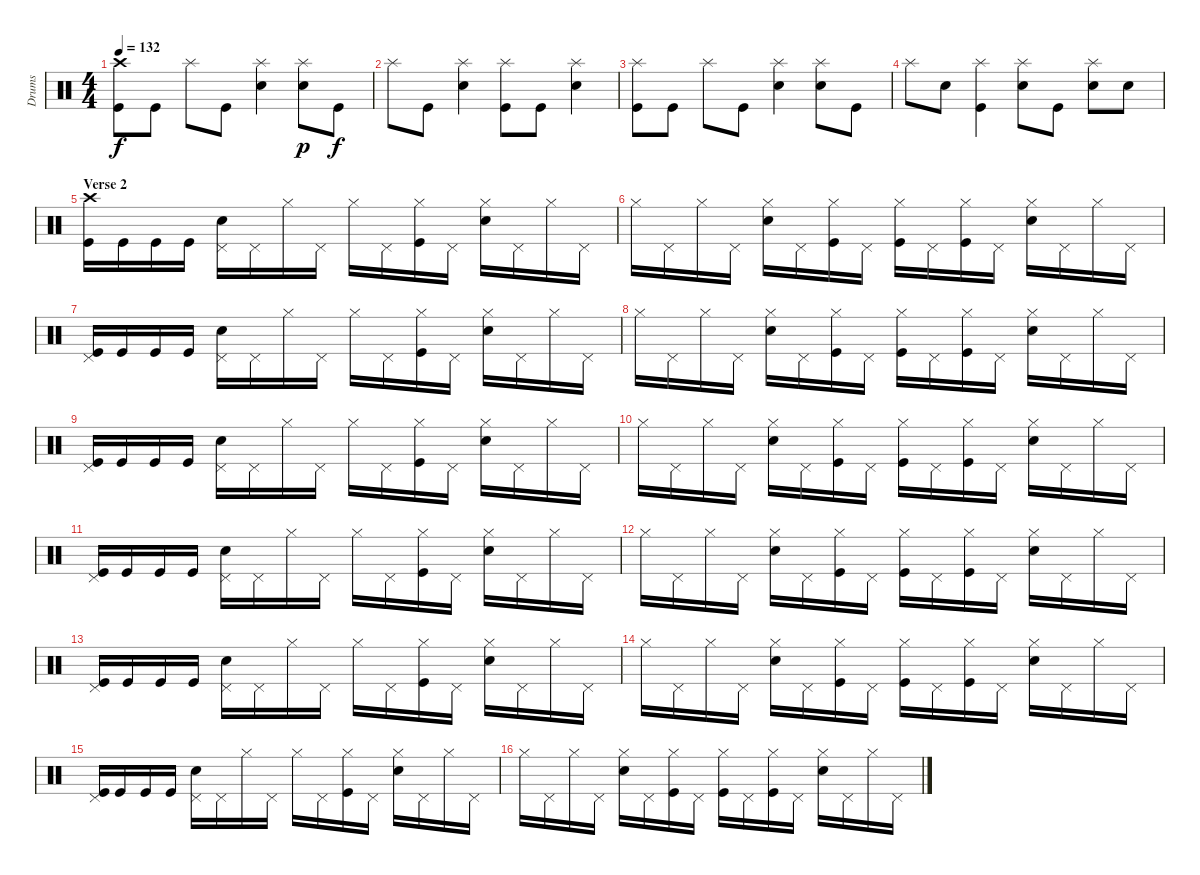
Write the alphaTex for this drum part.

\track ("Drums" "Drums") {instrument percussion}
\staff {score}
\articulation defaults
\ts (4 4)
\tempo 132
\clef neutral
\ks c
("Crash high (hit)" "Kick (hit)").8{dy f} "Kick (hit)".8 "Splash (hit)".8 "Kick (hit)".8 ("Snare (hit) 2" "Splash (hit)").4 ("Snare (hit) 2" "Splash (hit)").8{dy p} "Kick (hit)".8{dy f} |
"Splash (hit)".8 "Kick (hit)".8 ("Snare (hit) 2" "Splash (hit)").4 ("Splash (hit)" "Kick (hit)").8 "Kick (hit)".8 ("Snare (hit) 2" "Splash (hit)").4 |
("Splash (hit)" "Kick (hit)").8 "Kick (hit)".8 "Splash (hit)".8 "Kick (hit)".8 ("Snare (hit) 2" "Splash (hit)").4 ("Snare (hit) 2" "Splash (hit)").8 "Kick (hit)".8 |
"Splash (hit)".8 "Snare (hit) 2".8 ("Splash (hit)" "Kick (hit)").4 ("Snare (hit) 2" "Splash (hit)").8 "Kick (hit)".8 ("Snare (hit) 2" "Splash (hit)").8 "Snare (hit) 2".8 |
\section ("" "Verse 2")
("Crash high (hit)" "Kick (hit)").16 "Kick (hit)".16 "Kick (hit)".16 "Kick (hit)".16 ("Snare (hit) 2" "Pedal Hi-Hat (hit)").16 "Pedal Hi-Hat (hit)".16 "Hi-Hat (closed)".16 "Pedal Hi-Hat (hit)".16 "Hi-Hat (closed)".16 "Pedal Hi-Hat (hit)".16 ("Hi-Hat (closed)" "Kick (hit)").16 "Pedal Hi-Hat (hit)".16 ("Snare (hit) 2" "Hi-Hat (closed)").16 "Pedal Hi-Hat (hit)".16 "Hi-Hat (closed)".16 "Pedal Hi-Hat (hit)".16 |
"Hi-Hat (closed)".16 "Pedal Hi-Hat (hit)".16 "Hi-Hat (closed)".16 "Pedal Hi-Hat (hit)".16 ("Snare (hit) 2" "Hi-Hat (closed)").16 "Pedal Hi-Hat (hit)".16 ("Hi-Hat (closed)" "Kick (hit)").16 "Pedal Hi-Hat (hit)".16 ("Hi-Hat (closed)" "Kick (hit)").16 "Pedal Hi-Hat (hit)".16 ("Hi-Hat (closed)" "Kick (hit)").16 "Pedal Hi-Hat (hit)".16 ("Snare (hit) 2" "Hi-Hat (closed)").16 "Pedal Hi-Hat (hit)".16 "Hi-Hat (closed)".16 "Pedal Hi-Hat (hit)".16 |
("Pedal Hi-Hat (hit)" "Kick (hit)").16 "Kick (hit)".16 "Kick (hit)".16 "Kick (hit)".16 ("Snare (hit) 2" "Pedal Hi-Hat (hit)").16 "Pedal Hi-Hat (hit)".16 "Hi-Hat (closed)".16 "Pedal Hi-Hat (hit)".16 "Hi-Hat (closed)".16 "Pedal Hi-Hat (hit)".16 ("Hi-Hat (closed)" "Kick (hit)").16 "Pedal Hi-Hat (hit)".16 ("Snare (hit) 2" "Hi-Hat (closed)").16 "Pedal Hi-Hat (hit)".16 "Hi-Hat (closed)".16 "Pedal Hi-Hat (hit)".16 |
"Hi-Hat (closed)".16 "Pedal Hi-Hat (hit)".16 "Hi-Hat (closed)".16 "Pedal Hi-Hat (hit)".16 ("Snare (hit) 2" "Hi-Hat (closed)").16 "Pedal Hi-Hat (hit)".16 ("Hi-Hat (closed)" "Kick (hit)").16 "Pedal Hi-Hat (hit)".16 ("Hi-Hat (closed)" "Kick (hit)").16 "Pedal Hi-Hat (hit)".16 ("Hi-Hat (closed)" "Kick (hit)").16 "Pedal Hi-Hat (hit)".16 ("Snare (hit) 2" "Hi-Hat (closed)").16 "Pedal Hi-Hat (hit)".16 "Hi-Hat (closed)".16 "Pedal Hi-Hat (hit)".16 |
("Pedal Hi-Hat (hit)" "Kick (hit)").16 "Kick (hit)".16 "Kick (hit)".16 "Kick (hit)".16 ("Snare (hit) 2" "Pedal Hi-Hat (hit)").16 "Pedal Hi-Hat (hit)".16 "Hi-Hat (closed)".16 "Pedal Hi-Hat (hit)".16 "Hi-Hat (closed)".16 "Pedal Hi-Hat (hit)".16 ("Hi-Hat (closed)" "Kick (hit)").16 "Pedal Hi-Hat (hit)".16 ("Snare (hit) 2" "Hi-Hat (closed)").16 "Pedal Hi-Hat (hit)".16 "Hi-Hat (closed)".16 "Pedal Hi-Hat (hit)".16 |
"Hi-Hat (closed)".16 "Pedal Hi-Hat (hit)".16 "Hi-Hat (closed)".16 "Pedal Hi-Hat (hit)".16 ("Snare (hit) 2" "Hi-Hat (closed)").16 "Pedal Hi-Hat (hit)".16 ("Hi-Hat (closed)" "Kick (hit)").16 "Pedal Hi-Hat (hit)".16 ("Hi-Hat (closed)" "Kick (hit)").16 "Pedal Hi-Hat (hit)".16 ("Hi-Hat (closed)" "Kick (hit)").16 "Pedal Hi-Hat (hit)".16 ("Snare (hit) 2" "Hi-Hat (closed)").16 "Pedal Hi-Hat (hit)".16 "Hi-Hat (closed)".16 "Pedal Hi-Hat (hit)".16 |
("Pedal Hi-Hat (hit)" "Kick (hit)").16 "Kick (hit)".16 "Kick (hit)".16 "Kick (hit)".16 ("Snare (hit) 2" "Pedal Hi-Hat (hit)").16 "Pedal Hi-Hat (hit)".16 "Hi-Hat (closed)".16 "Pedal Hi-Hat (hit)".16 "Hi-Hat (closed)".16 "Pedal Hi-Hat (hit)".16 ("Hi-Hat (closed)" "Kick (hit)").16 "Pedal Hi-Hat (hit)".16 ("Snare (hit) 2" "Hi-Hat (closed)").16 "Pedal Hi-Hat (hit)".16 "Hi-Hat (closed)".16 "Pedal Hi-Hat (hit)".16 |
"Hi-Hat (closed)".16 "Pedal Hi-Hat (hit)".16 "Hi-Hat (closed)".16 "Pedal Hi-Hat (hit)".16 ("Snare (hit) 2" "Hi-Hat (closed)").16 "Pedal Hi-Hat (hit)".16 ("Hi-Hat (closed)" "Kick (hit)").16 "Pedal Hi-Hat (hit)".16 ("Hi-Hat (closed)" "Kick (hit)").16 "Pedal Hi-Hat (hit)".16 ("Hi-Hat (closed)" "Kick (hit)").16 "Pedal Hi-Hat (hit)".16 ("Snare (hit) 2" "Hi-Hat (closed)").16 "Pedal Hi-Hat (hit)".16 "Hi-Hat (closed)".16 "Pedal Hi-Hat (hit)".16 |
("Pedal Hi-Hat (hit)" "Kick (hit)").16 "Kick (hit)".16 "Kick (hit)".16 "Kick (hit)".16 ("Snare (hit) 2" "Pedal Hi-Hat (hit)").16 "Pedal Hi-Hat (hit)".16 "Hi-Hat (closed)".16 "Pedal Hi-Hat (hit)".16 "Hi-Hat (closed)".16 "Pedal Hi-Hat (hit)".16 ("Hi-Hat (closed)" "Kick (hit)").16 "Pedal Hi-Hat (hit)".16 ("Snare (hit) 2" "Hi-Hat (closed)").16 "Pedal Hi-Hat (hit)".16 "Hi-Hat (closed)".16 "Pedal Hi-Hat (hit)".16 |
"Hi-Hat (closed)".16 "Pedal Hi-Hat (hit)".16 "Hi-Hat (closed)".16 "Pedal Hi-Hat (hit)".16 ("Snare (hit) 2" "Hi-Hat (closed)").16 "Pedal Hi-Hat (hit)".16 ("Hi-Hat (closed)" "Kick (hit)").16 "Pedal Hi-Hat (hit)".16 ("Hi-Hat (closed)" "Kick (hit)").16 "Pedal Hi-Hat (hit)".16 ("Hi-Hat (closed)" "Kick (hit)").16 "Pedal Hi-Hat (hit)".16 ("Snare (hit) 2" "Hi-Hat (closed)").16 "Pedal Hi-Hat (hit)".16 "Hi-Hat (closed)".16 "Pedal Hi-Hat (hit)".16 |
("Pedal Hi-Hat (hit)" "Kick (hit)").16 "Kick (hit)".16 "Kick (hit)".16 "Kick (hit)".16 ("Snare (hit) 2" "Pedal Hi-Hat (hit)").16 "Pedal Hi-Hat (hit)".16 "Hi-Hat (closed)".16 "Pedal Hi-Hat (hit)".16 "Hi-Hat (closed)".16 "Pedal Hi-Hat (hit)".16 ("Hi-Hat (closed)" "Kick (hit)").16 "Pedal Hi-Hat (hit)".16 ("Snare (hit) 2" "Hi-Hat (closed)").16 "Pedal Hi-Hat (hit)".16 "Hi-Hat (closed)".16 "Pedal Hi-Hat (hit)".16 |
"Hi-Hat (closed)".16 "Pedal Hi-Hat (hit)".16 "Hi-Hat (closed)".16 "Pedal Hi-Hat (hit)".16 ("Snare (hit) 2" "Hi-Hat (closed)").16 "Pedal Hi-Hat (hit)".16 ("Hi-Hat (closed)" "Kick (hit)").16 "Pedal Hi-Hat (hit)".16 ("Hi-Hat (closed)" "Kick (hit)").16 "Pedal Hi-Hat (hit)".16 ("Hi-Hat (closed)" "Kick (hit)").16 "Pedal Hi-Hat (hit)".16 ("Snare (hit) 2" "Hi-Hat (closed)").16 "Pedal Hi-Hat (hit)".16 "Hi-Hat (closed)".16 "Pedal Hi-Hat (hit)".16
